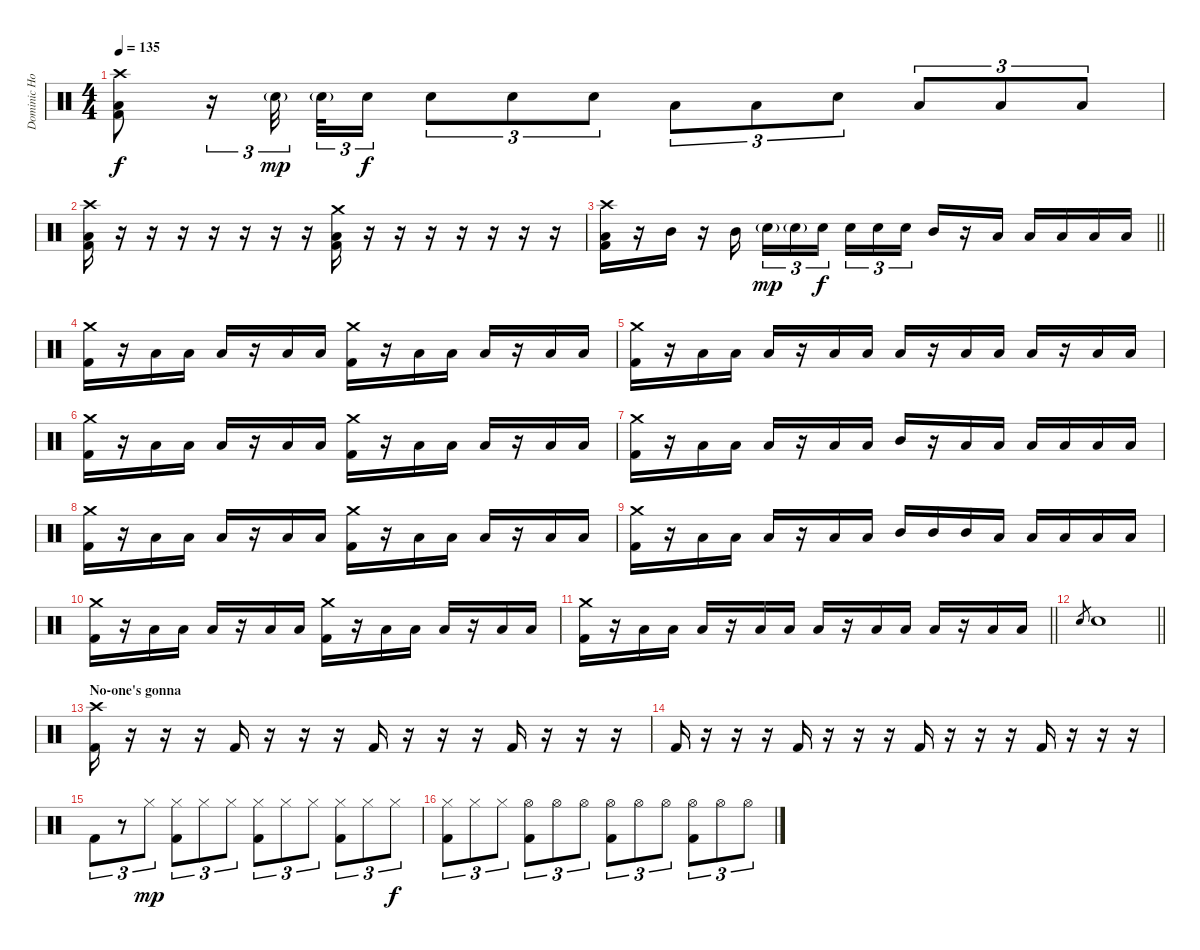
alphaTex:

\track ("Dominic Howard (Drums)" "Dominic Ho") {instrument percussion}
\staff {score}
\articulation defaults
\ts (4 4)
\tempo 135
\clef neutral
\ks c
("Crash high (hit)" "Low Floor Tom (hit)" "Kick (hit) 2").8{dy f} r.16{tu (3 2)} "Electric Snare (hit)"{g}.32{tu (3 2) dy mp beam splitsecondary} "Electric Snare (hit)"{g}.32{tu (3 2)} "Electric Snare (hit)".16{tu (3 2) dy f} "Electric Snare (hit)".8{tu (3 2)} "Electric Snare (hit)".8{tu (3 2)} "Electric Snare (hit)".8{tu (3 2)} "Low Tom (hit)".8{tu (3 2)} "Low Tom (hit)".8{tu (3 2)} "Electric Snare (hit)".8{tu (3 2)} "Low Floor Tom (hit)".8{tu (3 2)} "Low Floor Tom (hit)".8{tu (3 2)} "Low Floor Tom (hit)".8{tu (3 2)} |
("Crash high (hit)" "Low Floor Tom (hit)" "Kick (hit) 2").16 r.16 r.16 r.16 r.16 r.16 r.16 r.16 ("Crash medium (hit)" "Low Floor Tom (hit)" "Kick (hit) 2").16 r.16 r.16 r.16 r.16 r.16 r.16 r.16 |
\barLineRight lightlight
("Crash high (hit)" "Low Floor Tom (hit)" "Kick (hit) 2").16 r.16 "Mid Tom (hit)".16 r.16 "Mid Tom (hit)".16{beam splitsecondary} "Electric Snare (hit)"{g}.16{tu (3 2) dy mp} "Electric Snare (hit)"{g}.16{tu (3 2)} "Electric Snare (hit)".16{tu (3 2) dy f beam splitsecondary} "Electric Snare (hit)".16{tu (3 2)} "Electric Snare (hit)".16{tu (3 2)} "Electric Snare (hit)".16{tu (3 2)} "Mid Tom (hit)".16 r.16 "Low Tom (hit)".16 "Low Tom (hit)".16 "Low Tom (hit)".16 "Low Floor Tom (hit)".16 "Low Floor Tom (hit)".16 |
("Crash medium (hit)" "Kick (hit) 2").16 r.16 "Low Floor Tom (hit)".16 "Low Floor Tom (hit)".16 "Low Floor Tom (hit)".16 r.16 "Low Floor Tom (hit)".16 "Low Floor Tom (hit)".16 ("Crash medium (hit)" "Kick (hit) 2").16 r.16 "Low Floor Tom (hit)".16 "Low Floor Tom (hit)".16 "Low Floor Tom (hit)".16 r.16 "Low Floor Tom (hit)".16 "Low Floor Tom (hit)".16 |
("Crash medium (hit)" "Kick (hit) 2").16 r.16 "Low Floor Tom (hit)".16 "Low Floor Tom (hit)".16 "Low Floor Tom (hit)".16 r.16 "Low Floor Tom (hit)".16 "Low Floor Tom (hit)".16 "Low Floor Tom (hit)".16 r.16 "Low Floor Tom (hit)".16 "Low Floor Tom (hit)".16 "Low Floor Tom (hit)".16 r.16 "Low Floor Tom (hit)".16 "Low Floor Tom (hit)".16 |
("Crash medium (hit)" "Kick (hit) 2").16 r.16 "Low Floor Tom (hit)".16 "Low Floor Tom (hit)".16 "Low Floor Tom (hit)".16 r.16 "Low Floor Tom (hit)".16 "Low Floor Tom (hit)".16 ("Crash medium (hit)" "Kick (hit) 2").16 r.16 "Low Floor Tom (hit)".16 "Low Floor Tom (hit)".16 "Low Floor Tom (hit)".16 r.16 "Low Floor Tom (hit)".16 "Low Floor Tom (hit)".16 |
("Crash medium (hit)" "Kick (hit) 2").16 r.16 "Low Floor Tom (hit)".16 "Low Floor Tom (hit)".16 "Low Floor Tom (hit)".16 r.16 "Low Floor Tom (hit)".16 "Low Floor Tom (hit)".16 "Mid Tom (hit)".16 r.16 "Low Floor Tom (hit)".16 "Low Floor Tom (hit)".16 "Low Floor Tom (hit)".16 "Low Floor Tom (hit)".16 "Low Tom (hit)".16 "Low Tom (hit)".16 |
("Crash medium (hit)" "Kick (hit) 2").16 r.16 "Low Floor Tom (hit)".16 "Low Floor Tom (hit)".16 "Low Floor Tom (hit)".16 r.16 "Low Floor Tom (hit)".16 "Low Floor Tom (hit)".16 ("Crash medium (hit)" "Kick (hit) 2").16 r.16 "Low Floor Tom (hit)".16 "Low Floor Tom (hit)".16 "Low Floor Tom (hit)".16 r.16 "Low Floor Tom (hit)".16 "Low Floor Tom (hit)".16 |
("Crash medium (hit)" "Kick (hit) 2").16 r.16 "Low Floor Tom (hit)".16 "Low Floor Tom (hit)".16 "Low Tom (hit)".16 r.16 "Low Tom (hit)".16 "Low Tom (hit)".16 "Mid Tom (hit)".16 "Mid Tom (hit)".16 "Mid Tom (hit)".16 "Low Tom (hit)".16 "Low Tom (hit)".16 "Low Tom (hit)".16 "Low Floor Tom (hit)".16 "Low Floor Tom (hit)".16 |
("Crash medium (hit)" "Kick (hit) 2").16 r.16 "Low Floor Tom (hit)".16 "Low Floor Tom (hit)".16 "Low Floor Tom (hit)".16 r.16 "Low Floor Tom (hit)".16 "Low Floor Tom (hit)".16 ("Crash medium (hit)" "Kick (hit) 2").16 r.16 "Low Floor Tom (hit)".16 "Low Floor Tom (hit)".16 "Low Floor Tom (hit)".16 r.16 "Low Floor Tom (hit)".16 "Low Floor Tom (hit)".16 |
\barLineRight lightlight
("Crash medium (hit)" "Kick (hit) 2").16 r.16 "Low Floor Tom (hit)".16 "Low Floor Tom (hit)".16 "Low Floor Tom (hit)".16 r.16 "Low Floor Tom (hit)".16 "Low Floor Tom (hit)".16 "Low Floor Tom (hit)".16 r.16 "Low Floor Tom (hit)".16 "Low Floor Tom (hit)".16 "Low Floor Tom (hit)".16 r.16 "Low Floor Tom (hit)".16 "Low Floor Tom (hit)".16 |
\barLineRight lightlight "Electric Snare (hit)".8{gr} "Electric Snare (hit)".1
|
\section ("" "No-one's gonna")
("Crash high (hit)" "Kick (hit) 2").16 r.16 r.16 r.16 "Kick (hit) 2".16 r.16 r.16 r.16 "Kick (hit) 2".16 r.16 r.16 r.16 "Kick (hit) 2".16 r.16 r.16 r.16 |
"Kick (hit) 2".16 r.16 r.16 r.16 "Kick (hit) 2".16 r.16 r.16 r.16 "Kick (hit) 2".16 r.16 r.16 r.16 "Kick (hit) 2".16 r.16 r.16 r.16 |
"Kick (hit) 2".8{tu (3 2)} r.8{tu (3 2)} "Hi-Hat (closed)".8{tu (3 2) dy mp} ("Hi-Hat (closed)" "Kick (hit) 2").8{tu (3 2)} "Hi-Hat (closed)".8{tu (3 2)} "Hi-Hat (closed)".8{tu (3 2)} ("Hi-Hat (closed)" "Kick (hit) 2").8{tu (3 2)} "Hi-Hat (closed)".8{tu (3 2)} "Hi-Hat (closed)".8{tu (3 2)} ("Hi-Hat (closed)" "Kick (hit) 2").8{tu (3 2)} "Hi-Hat (closed)".8{tu (3 2)} "Hi-Hat (closed)".8{tu (3 2) dy f} |
("Hi-Hat (closed)" "Kick (hit) 2").8{tu (3 2)} "Hi-Hat (closed)".8{tu (3 2)} "Hi-Hat (closed)".8{tu (3 2)} ("Hi-Hat (open)" "Kick (hit) 2").8{tu (3 2)} "Hi-Hat (open)".8{tu (3 2)} "Hi-Hat (open)".8{tu (3 2)} ("Hi-Hat (open)" "Kick (hit) 2").8{tu (3 2)} "Hi-Hat (open)".8{tu (3 2)} "Hi-Hat (open)".8{tu (3 2)} ("Hi-Hat (open)" "Kick (hit) 2").8{tu (3 2)} "Hi-Hat (open)".8{tu (3 2)} "Hi-Hat (open)".8{tu (3 2)}
